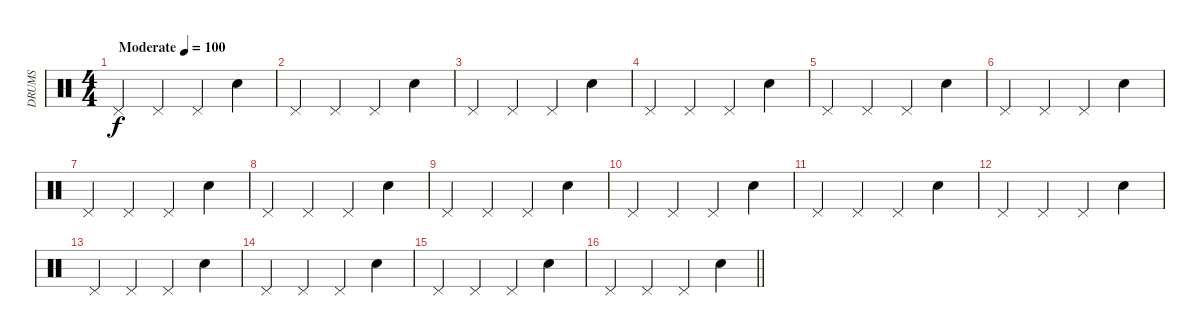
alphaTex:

\track ("DRUMS" "DRUMS") {instrument percussion}
\staff {score}
\articulation defaults
\ts (4 4)
\tempo (100 "Moderate")
\clef neutral
\ks c "Pedal Hi-Hat (hit)".4{dy f} "Pedal Hi-Hat (hit)".4 "Pedal Hi-Hat (hit)".4 "Snare (hit) 2".4
|
"Pedal Hi-Hat (hit)".4 "Pedal Hi-Hat (hit)".4 "Pedal Hi-Hat (hit)".4 "Snare (hit) 2".4 |
"Pedal Hi-Hat (hit)".4 "Pedal Hi-Hat (hit)".4 "Pedal Hi-Hat (hit)".4 "Snare (hit) 2".4 |
"Pedal Hi-Hat (hit)".4 "Pedal Hi-Hat (hit)".4 "Pedal Hi-Hat (hit)".4 "Snare (hit) 2".4 |
"Pedal Hi-Hat (hit)".4 "Pedal Hi-Hat (hit)".4 "Pedal Hi-Hat (hit)".4 "Snare (hit) 2".4 |
"Pedal Hi-Hat (hit)".4 "Pedal Hi-Hat (hit)".4 "Pedal Hi-Hat (hit)".4 "Snare (hit) 2".4 |
"Pedal Hi-Hat (hit)".4 "Pedal Hi-Hat (hit)".4 "Pedal Hi-Hat (hit)".4 "Snare (hit) 2".4 |
"Pedal Hi-Hat (hit)".4 "Pedal Hi-Hat (hit)".4 "Pedal Hi-Hat (hit)".4 "Snare (hit) 2".4 |
"Pedal Hi-Hat (hit)".4 "Pedal Hi-Hat (hit)".4 "Pedal Hi-Hat (hit)".4 "Snare (hit) 2".4 |
"Pedal Hi-Hat (hit)".4 "Pedal Hi-Hat (hit)".4 "Pedal Hi-Hat (hit)".4 "Snare (hit) 2".4 |
"Pedal Hi-Hat (hit)".4 "Pedal Hi-Hat (hit)".4 "Pedal Hi-Hat (hit)".4 "Snare (hit) 2".4 |
"Pedal Hi-Hat (hit)".4 "Pedal Hi-Hat (hit)".4 "Pedal Hi-Hat (hit)".4 "Snare (hit) 2".4 |
"Pedal Hi-Hat (hit)".4 "Pedal Hi-Hat (hit)".4 "Pedal Hi-Hat (hit)".4 "Snare (hit) 2".4 |
"Pedal Hi-Hat (hit)".4 "Pedal Hi-Hat (hit)".4 "Pedal Hi-Hat (hit)".4 "Snare (hit) 2".4 |
"Pedal Hi-Hat (hit)".4 "Pedal Hi-Hat (hit)".4 "Pedal Hi-Hat (hit)".4 "Snare (hit) 2".4 |
\barLineRight lightlight "Pedal Hi-Hat (hit)".4 "Pedal Hi-Hat (hit)".4 "Pedal Hi-Hat (hit)".4 "Snare (hit) 2".4
